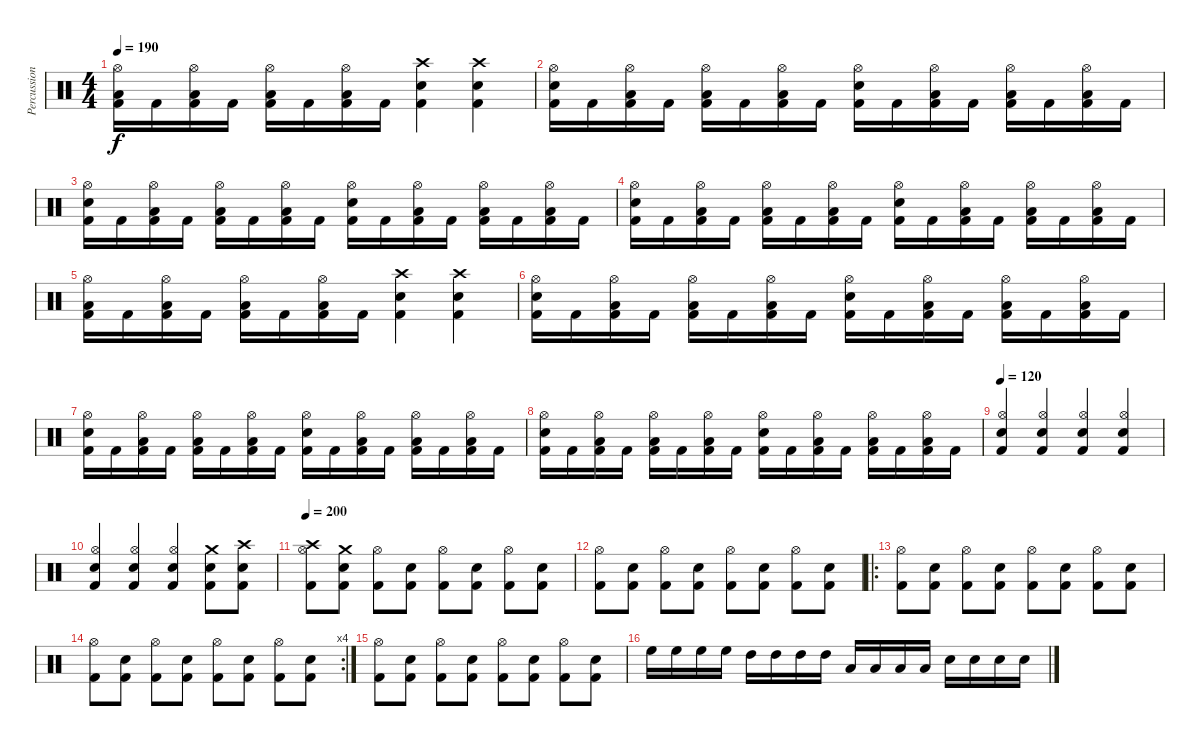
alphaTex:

\track ("Percussions" "Percussion") {instrument percussion}
\staff {score}
\articulation defaults
\ts (4 4)
\tempo 190
\clef neutral
\ks c
("Kick (hit) 2" "Low Floor Tom (hit)" "Hi-Hat (open)").16{dy f} "Kick (hit) 2".16 ("Kick (hit) 2" "Low Floor Tom (hit)" "Hi-Hat (open)").16 "Kick (hit) 2".16 ("Kick (hit) 2" "Low Floor Tom (hit)" "Hi-Hat (open)").16 "Kick (hit) 2".16 ("Kick (hit) 2" "Low Floor Tom (hit)" "Hi-Hat (open)").16 "Kick (hit) 2".16 ("Kick (hit) 2" "Snare (hit) 2" "Crash high (hit)").4 ("Kick (hit) 2" "Snare (hit) 2" "Crash high (hit)").4 |
("Kick (hit) 2" "Snare (hit) 2" "Hi-Hat (open)").16 "Kick (hit) 2".16 ("Kick (hit) 2" "Low Floor Tom (hit)" "Hi-Hat (open)").16 "Kick (hit) 2".16 ("Kick (hit) 2" "Low Floor Tom (hit)" "Hi-Hat (open)").16 "Kick (hit) 2".16 ("Kick (hit) 2" "Low Floor Tom (hit)" "Hi-Hat (open)").16 "Kick (hit) 2".16 ("Kick (hit) 2" "Snare (hit) 2" "Hi-Hat (open)").16 "Kick (hit) 2".16 ("Kick (hit) 2" "Low Floor Tom (hit)" "Hi-Hat (open)").16 "Kick (hit) 2".16 ("Kick (hit) 2" "Low Floor Tom (hit)" "Hi-Hat (open)").16 "Kick (hit) 2".16 ("Kick (hit) 2" "Low Floor Tom (hit)" "Hi-Hat (open)").16 "Kick (hit) 2".16 |
("Kick (hit) 2" "Snare (hit) 2" "Hi-Hat (open)").16 "Kick (hit) 2".16 ("Kick (hit) 2" "Low Floor Tom (hit)" "Hi-Hat (open)").16 "Kick (hit) 2".16 ("Kick (hit) 2" "Low Floor Tom (hit)" "Hi-Hat (open)").16 "Kick (hit) 2".16 ("Kick (hit) 2" "Low Floor Tom (hit)" "Hi-Hat (open)").16 "Kick (hit) 2".16 ("Kick (hit) 2" "Snare (hit) 2" "Hi-Hat (open)").16 "Kick (hit) 2".16 ("Kick (hit) 2" "Low Floor Tom (hit)" "Hi-Hat (open)").16 "Kick (hit) 2".16 ("Kick (hit) 2" "Low Floor Tom (hit)" "Hi-Hat (open)").16 "Kick (hit) 2".16 ("Kick (hit) 2" "Low Floor Tom (hit)" "Hi-Hat (open)").16 "Kick (hit) 2".16 |
("Kick (hit) 2" "Snare (hit) 2" "Hi-Hat (open)").16 "Kick (hit) 2".16 ("Kick (hit) 2" "Low Floor Tom (hit)" "Hi-Hat (open)").16 "Kick (hit) 2".16 ("Kick (hit) 2" "Low Floor Tom (hit)" "Hi-Hat (open)").16 "Kick (hit) 2".16 ("Kick (hit) 2" "Low Floor Tom (hit)" "Hi-Hat (open)").16 "Kick (hit) 2".16 ("Kick (hit) 2" "Snare (hit) 2" "Hi-Hat (open)").16 "Kick (hit) 2".16 ("Kick (hit) 2" "Low Floor Tom (hit)" "Hi-Hat (open)").16 "Kick (hit) 2".16 ("Kick (hit) 2" "Low Floor Tom (hit)" "Hi-Hat (open)").16 "Kick (hit) 2".16 ("Kick (hit) 2" "Low Floor Tom (hit)" "Hi-Hat (open)").16 "Kick (hit) 2".16 |
("Kick (hit) 2" "Low Floor Tom (hit)" "Hi-Hat (open)").16 "Kick (hit) 2".16 ("Kick (hit) 2" "Low Floor Tom (hit)" "Hi-Hat (open)").16 "Kick (hit) 2".16 ("Kick (hit) 2" "Low Floor Tom (hit)" "Hi-Hat (open)").16 "Kick (hit) 2".16 ("Kick (hit) 2" "Low Floor Tom (hit)" "Hi-Hat (open)").16 "Kick (hit) 2".16 ("Kick (hit) 2" "Snare (hit) 2" "Crash high (hit)").4 ("Kick (hit) 2" "Snare (hit) 2" "Crash high (hit)").4 |
("Kick (hit) 2" "Snare (hit) 2" "Hi-Hat (open)").16 "Kick (hit) 2".16 ("Kick (hit) 2" "Low Floor Tom (hit)" "Hi-Hat (open)").16 "Kick (hit) 2".16 ("Kick (hit) 2" "Low Floor Tom (hit)" "Hi-Hat (open)").16 "Kick (hit) 2".16 ("Kick (hit) 2" "Low Floor Tom (hit)" "Hi-Hat (open)").16 "Kick (hit) 2".16 ("Kick (hit) 2" "Snare (hit) 2" "Hi-Hat (open)").16 "Kick (hit) 2".16 ("Kick (hit) 2" "Low Floor Tom (hit)" "Hi-Hat (open)").16 "Kick (hit) 2".16 ("Kick (hit) 2" "Low Floor Tom (hit)" "Hi-Hat (open)").16 "Kick (hit) 2".16 ("Kick (hit) 2" "Low Floor Tom (hit)" "Hi-Hat (open)").16 "Kick (hit) 2".16 |
("Kick (hit) 2" "Snare (hit) 2" "Hi-Hat (open)").16 "Kick (hit) 2".16 ("Kick (hit) 2" "Low Floor Tom (hit)" "Hi-Hat (open)").16 "Kick (hit) 2".16 ("Kick (hit) 2" "Low Floor Tom (hit)" "Hi-Hat (open)").16 "Kick (hit) 2".16 ("Kick (hit) 2" "Low Floor Tom (hit)" "Hi-Hat (open)").16 "Kick (hit) 2".16 ("Kick (hit) 2" "Snare (hit) 2" "Hi-Hat (open)").16 "Kick (hit) 2".16 ("Kick (hit) 2" "Low Floor Tom (hit)" "Hi-Hat (open)").16 "Kick (hit) 2".16 ("Kick (hit) 2" "Low Floor Tom (hit)" "Hi-Hat (open)").16 "Kick (hit) 2".16 ("Kick (hit) 2" "Low Floor Tom (hit)" "Hi-Hat (open)").16 "Kick (hit) 2".16 |
("Kick (hit) 2" "Snare (hit) 2" "Hi-Hat (open)").16 "Kick (hit) 2".16 ("Kick (hit) 2" "Low Floor Tom (hit)" "Hi-Hat (open)").16 "Kick (hit) 2".16 ("Kick (hit) 2" "Low Floor Tom (hit)" "Hi-Hat (open)").16 "Kick (hit) 2".16 ("Kick (hit) 2" "Low Floor Tom (hit)" "Hi-Hat (open)").16 "Kick (hit) 2".16 ("Kick (hit) 2" "Snare (hit) 2" "Hi-Hat (open)").16 "Kick (hit) 2".16 ("Kick (hit) 2" "Low Floor Tom (hit)" "Hi-Hat (open)").16 "Kick (hit) 2".16 ("Kick (hit) 2" "Low Floor Tom (hit)" "Hi-Hat (open)").16 "Kick (hit) 2".16 ("Kick (hit) 2" "Low Floor Tom (hit)" "Hi-Hat (open)").16 "Kick (hit) 2".16 |
\tempo 120
("Kick (hit) 2" "Snare (hit) 2" "Hi-Hat (open)").4 ("Kick (hit) 2" "Snare (hit) 2" "Hi-Hat (open)").4 ("Kick (hit) 2" "Snare (hit) 2" "Hi-Hat (open)").4 ("Kick (hit) 2" "Snare (hit) 2" "Hi-Hat (open)").4 |
("Kick (hit) 2" "Snare (hit) 2" "Hi-Hat (open)").4 ("Kick (hit) 2" "Snare (hit) 2" "Hi-Hat (open)").4 ("Kick (hit) 2" "Snare (hit) 2" "Hi-Hat (open)").4 ("Kick (hit) 2" "Snare (hit) 2" "Crash medium (hit)").8 ("Kick (hit) 2" "Snare (hit) 2" "Crash high (hit)").8 |
\tempo 200
("Kick (hit) 2" "Hi-Hat (open)" "Crash high (hit)").8 ("Kick (hit) 2" "Snare (hit) 2" "Crash medium (hit)").8 ("Kick (hit) 2" "Hi-Hat (open)").8 ("Kick (hit) 2" "Snare (hit) 2").8 ("Kick (hit) 2" "Hi-Hat (open)").8 ("Kick (hit) 2" "Snare (hit) 2").8 ("Kick (hit) 2" "Hi-Hat (open)").8 ("Kick (hit) 2" "Snare (hit) 2").8 |
("Kick (hit) 2" "Hi-Hat (open)").8 ("Kick (hit) 2" "Snare (hit) 2").8 ("Kick (hit) 2" "Hi-Hat (open)").8 ("Kick (hit) 2" "Snare (hit) 2").8 ("Kick (hit) 2" "Hi-Hat (open)").8 ("Kick (hit) 2" "Snare (hit) 2").8 ("Kick (hit) 2" "Hi-Hat (open)").8 ("Kick (hit) 2" "Snare (hit) 2").8 |
\ro
("Kick (hit) 2" "Hi-Hat (open)").8 ("Kick (hit) 2" "Snare (hit) 2").8 ("Kick (hit) 2" "Hi-Hat (open)").8 ("Kick (hit) 2" "Snare (hit) 2").8 ("Kick (hit) 2" "Hi-Hat (open)").8 ("Kick (hit) 2" "Snare (hit) 2").8 ("Kick (hit) 2" "Hi-Hat (open)").8 ("Kick (hit) 2" "Snare (hit) 2").8 |
\rc 4
("Kick (hit) 2" "Hi-Hat (open)").8 ("Kick (hit) 2" "Snare (hit) 2").8 ("Kick (hit) 2" "Hi-Hat (open)").8 ("Kick (hit) 2" "Snare (hit) 2").8 ("Kick (hit) 2" "Hi-Hat (open)").8 ("Kick (hit) 2" "Snare (hit) 2").8 ("Kick (hit) 2" "Hi-Hat (open)").8 ("Kick (hit) 2" "Snare (hit) 2").8 |
("Kick (hit) 2" "Hi-Hat (open)").8 ("Kick (hit) 2" "Snare (hit) 2").8 ("Kick (hit) 2" "Hi-Hat (open)").8 ("Kick (hit) 2" "Snare (hit) 2").8 ("Kick (hit) 2" "Hi-Hat (open)").8 ("Kick (hit) 2" "Snare (hit) 2").8 ("Kick (hit) 2" "Hi-Hat (open)").8 ("Kick (hit) 2" "Snare (hit) 2").8 |
"High Floor Tom (hit)".16 "High Floor Tom (hit)".16 "High Floor Tom (hit)".16 "High Floor Tom (hit)".16 "High Tom (hit)".16 "High Tom (hit)".16 "High Tom (hit)".16 "High Tom (hit)".16 "Low Tom (hit)".16 "Low Tom (hit)".16 "Low Tom (hit)".16 "Low Tom (hit)".16 "Snare (hit) 2".16 "Snare (hit) 2".16 "Snare (hit) 2".16 "Snare (hit) 2".16
